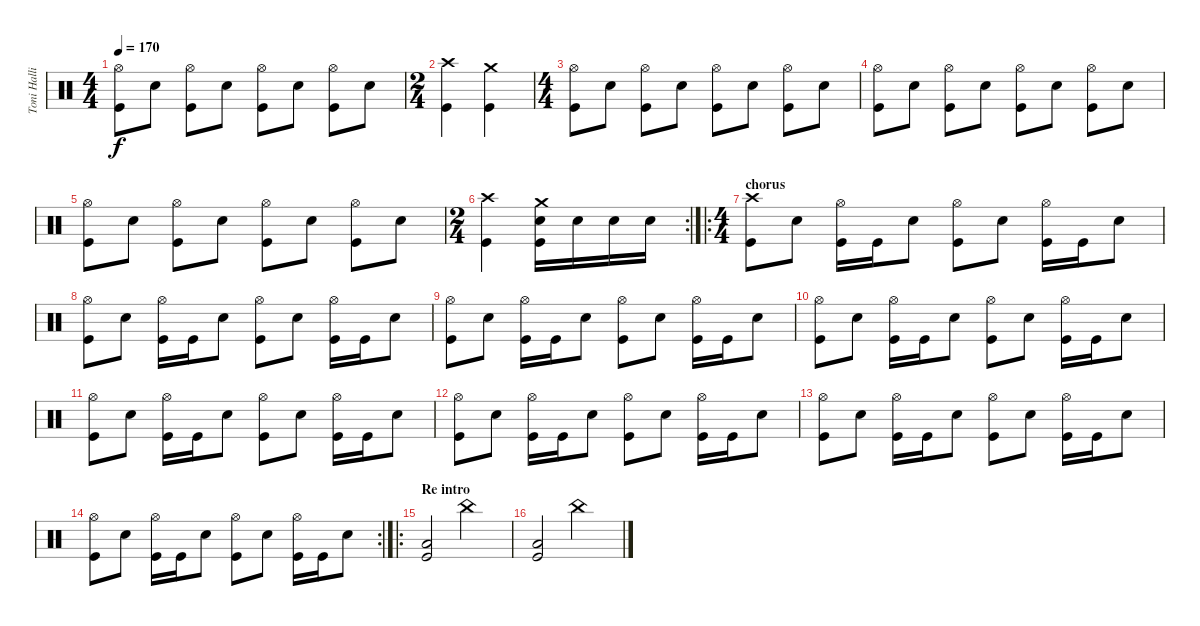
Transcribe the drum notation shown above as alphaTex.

\track ("Toni Hallio" "Toni Halli") {instrument percussion}
\staff {score}
\articulation defaults
\ts (4 4)
\tempo 170
\clef neutral
\ks c
("Hi-Hat (open)" "Kick (hit)").8{dy f} "Snare (hit) 2".8 ("Hi-Hat (open)" "Kick (hit)").8 "Snare (hit) 2".8 ("Hi-Hat (open)" "Kick (hit)").8 "Snare (hit) 2".8 ("Hi-Hat (open)" "Kick (hit)").8 "Snare (hit) 2".8 |
\ts (2 4)
("Crash high (hit)" "Kick (hit)").4 ("Crash medium (hit)" "Kick (hit)").4 |
\ts (4 4)
("Hi-Hat (open)" "Kick (hit)").8 "Snare (hit) 2".8 ("Hi-Hat (open)" "Kick (hit)").8 "Snare (hit) 2".8 ("Hi-Hat (open)" "Kick (hit)").8 "Snare (hit) 2".8 ("Hi-Hat (open)" "Kick (hit)").8 "Snare (hit) 2".8 |
("Hi-Hat (open)" "Kick (hit)").8 "Snare (hit) 2".8 ("Hi-Hat (open)" "Kick (hit)").8 "Snare (hit) 2".8 ("Hi-Hat (open)" "Kick (hit)").8 "Snare (hit) 2".8 ("Hi-Hat (open)" "Kick (hit)").8 "Snare (hit) 2".8 |
("Hi-Hat (open)" "Kick (hit)").8 "Snare (hit) 2".8 ("Hi-Hat (open)" "Kick (hit)").8 "Snare (hit) 2".8 ("Hi-Hat (open)" "Kick (hit)").8 "Snare (hit) 2".8 ("Hi-Hat (open)" "Kick (hit)").8 "Snare (hit) 2".8 |
\rc 2
\ts (2 4)
("Crash high (hit)" "Kick (hit)").4 ("Crash medium (hit)" "Snare (hit) 2" "Kick (hit)").16 "Snare (hit) 2".16 "Snare (hit) 2".16 "Snare (hit) 2".16 |
\ro
\ts (4 4)
\section ("" "chorus")
("Crash high (hit)" "Kick (hit)").8 "Snare (hit) 2".8 ("Hi-Hat (open)" "Kick (hit)").16 "Kick (hit)".16 "Snare (hit) 2".8 ("Hi-Hat (open)" "Kick (hit)").8 "Snare (hit) 2".8 ("Hi-Hat (open)" "Kick (hit)").16 "Kick (hit)".16 "Snare (hit) 2".8 |
("Hi-Hat (open)" "Kick (hit)").8 "Snare (hit) 2".8 ("Hi-Hat (open)" "Kick (hit)").16 "Kick (hit)".16 "Snare (hit) 2".8 ("Hi-Hat (open)" "Kick (hit)").8 "Snare (hit) 2".8 ("Hi-Hat (open)" "Kick (hit)").16 "Kick (hit)".16 "Snare (hit) 2".8 |
("Hi-Hat (open)" "Kick (hit)").8 "Snare (hit) 2".8 ("Hi-Hat (open)" "Kick (hit)").16 "Kick (hit)".16 "Snare (hit) 2".8 ("Hi-Hat (open)" "Kick (hit)").8 "Snare (hit) 2".8 ("Hi-Hat (open)" "Kick (hit)").16 "Kick (hit)".16 "Snare (hit) 2".8 |
("Hi-Hat (open)" "Kick (hit)").8 "Snare (hit) 2".8 ("Hi-Hat (open)" "Kick (hit)").16 "Kick (hit)".16 "Snare (hit) 2".8 ("Hi-Hat (open)" "Kick (hit)").8 "Snare (hit) 2".8 ("Hi-Hat (open)" "Kick (hit)").16 "Kick (hit)".16 "Snare (hit) 2".8 |
("Hi-Hat (open)" "Kick (hit)").8 "Snare (hit) 2".8 ("Hi-Hat (open)" "Kick (hit)").16 "Kick (hit)".16 "Snare (hit) 2".8 ("Hi-Hat (open)" "Kick (hit)").8 "Snare (hit) 2".8 ("Hi-Hat (open)" "Kick (hit)").16 "Kick (hit)".16 "Snare (hit) 2".8 |
("Hi-Hat (open)" "Kick (hit)").8 "Snare (hit) 2".8 ("Hi-Hat (open)" "Kick (hit)").16 "Kick (hit)".16 "Snare (hit) 2".8 ("Hi-Hat (open)" "Kick (hit)").8 "Snare (hit) 2".8 ("Hi-Hat (open)" "Kick (hit)").16 "Kick (hit)".16 "Snare (hit) 2".8 |
("Hi-Hat (open)" "Kick (hit)").8 "Snare (hit) 2".8 ("Hi-Hat (open)" "Kick (hit)").16 "Kick (hit)".16 "Snare (hit) 2".8 ("Hi-Hat (open)" "Kick (hit)").8 "Snare (hit) 2".8 ("Hi-Hat (open)" "Kick (hit)").16 "Kick (hit)".16 "Snare (hit) 2".8 |
\rc 2
("Hi-Hat (open)" "Kick (hit)").8 "Snare (hit) 2".8 ("Hi-Hat (open)" "Kick (hit)").16 "Kick (hit)".16 "Snare (hit) 2".8 ("Hi-Hat (open)" "Kick (hit)").8 "Snare (hit) 2".8 ("Hi-Hat (open)" "Kick (hit)").16 "Kick (hit)".16 "Snare (hit) 2".8 |
\ro
\section ("" "Re intro")
("Low Floor Tom (hit)" "Kick (hit)").2 "China (hit)".2 |
("Low Floor Tom (hit)" "Kick (hit)").2 "China (hit)".2
